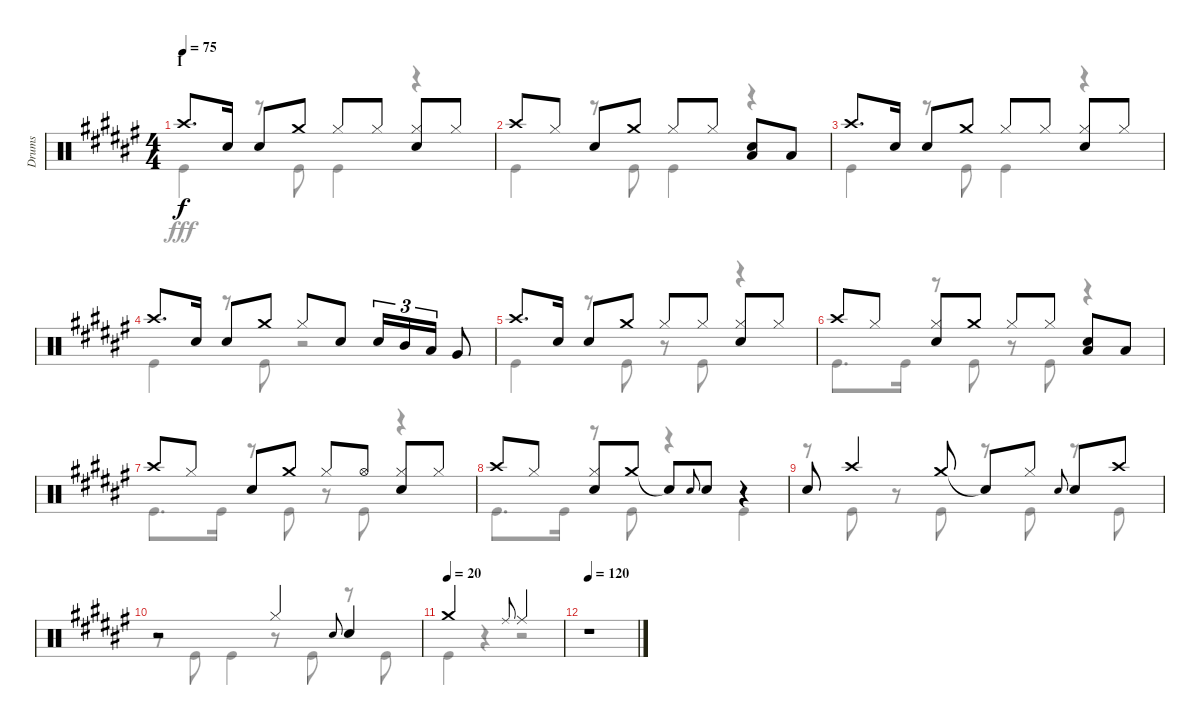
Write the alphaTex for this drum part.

\track ("Drums" "Drums") {instrument percussion}
\staff {score}
\articulation defaults
\voice
\ts (4 4)
\section ("" "I")
\tempo 75
\clef neutral
\ks f# "Crash high (hit)".8{d dy f} "Snare (hit) 2".16 "Snare (hit) 2".8 "Crash medium (hit)".8 "Hi-Hat (closed)".8 "Hi-Hat (closed)".8
("Hi-Hat (closed)" "Snare (hit) 2").8 "Hi-Hat (closed)".8 |
"Crash high (hit)".8 "Hi-Hat (closed)".8 "Snare (hit) 2".8 "Crash medium (hit)".8 "Hi-Hat (closed)".8 "Hi-Hat (closed)".8 ("Snare (hit) 2" "Low Tom (hit)").8 "Low Tom (hit)".8 |
"Crash high (hit)".8{d} "Snare (hit) 2".16 "Snare (hit) 2".8 "Crash medium (hit)".8 "Hi-Hat (closed)".8 "Hi-Hat (closed)".8 ("Hi-Hat (closed)" "Snare (hit) 2").8 "Hi-Hat (closed)".8 |
"Crash high (hit)".8{d} "Snare (hit) 2".16 "Snare (hit) 2".8 "Crash medium (hit)".8 "Hi-Hat (closed)".8 "Snare (hit) 2".8 "Snare (hit) 2".16{tu (3 2)} "Mid Tom (hit)".16{tu (3 2)} "Low Tom (hit)".16{tu (3 2)} "Very Low Tom (hit)".8 |
"Crash high (hit)".8{d} "Snare (hit) 2".16 "Snare (hit) 2".8 "Crash medium (hit)".8 "Hi-Hat (closed)".8 "Hi-Hat (closed)".8 ("Hi-Hat (closed)" "Snare (hit) 2").8 "Hi-Hat (closed)".8 |
"Crash high (hit)".8 "Hi-Hat (closed)".8 ("Hi-Hat (closed)" "Snare (hit) 2").8 "Crash medium (hit)".8 "Hi-Hat (closed)".8 "Hi-Hat (closed)".8 ("Snare (hit) 2" "Low Tom (hit)").8 "Low Tom (hit)".8 |
"Crash high (hit)".8 "Hi-Hat (closed)".8 "Snare (hit) 2".8 "Crash medium (hit)".8 "Hi-Hat (closed)".8 "Hi-Hat (open)".8 ("Hi-Hat (closed)" "Snare (hit) 2").8 "Hi-Hat (closed)".8 |
"Crash high (hit)".8 "Hi-Hat (closed)".8 ("Hi-Hat (closed)" "Snare (hit) 2").8 "Crash medium (hit)".8 "Snare (hit)"{t}.8 "Snare (hit) 2".8{gr onbeat} "Snare (hit) 2".8 r.4 |
"Snare (hit) 2".8 "Crash high (hit)".4 "Crash medium (hit)".8 "Snare (hit)"{t}.8 "Hi-Hat (closed)".8 "Snare (hit) 2".8{gr onbeat} "Snare (hit) 2".8 "Crash high (hit)".8 |
r.2 "Hi-Hat (closed)".4 "Snare (hit) 2".8{gr onbeat} "Snare (hit) 2".4 |
\tempo (20)
"Crash medium (hit)".2 "Ride (middle)".8{gr onbeat} "Ride (middle)".2 |
\tempo 120
r.1
\voice
\clef neutral
\ottava regular
\simile none
\ks f# "Kick (hit)".4{dy fff}
r.8 "Kick (hit)".8 "Kick (hit)".4 r.4 |
"Kick (hit)".4 r.8 "Kick (hit)".8 "Kick (hit)".4 r.4 |
"Kick (hit)".4 r.8 "Kick (hit)".8 "Kick (hit)".4 r.4 |
"Kick (hit)".4 r.8 "Kick (hit)".8 r.2 |
"Kick (hit)".4 r.8 "Kick (hit)".8 r.8 "Kick (hit)".8 r.4 |
"Kick (hit)".8{d} "Kick (hit)".16 r.8 "Kick (hit)".8 r.8 "Kick (hit)".8 r.4 |
"Kick (hit)".8{d} "Kick (hit)".16 r.8 "Kick (hit)".8 r.8 "Kick (hit)".8 r.4 |
"Kick (hit)".8{d} "Kick (hit)".16 r.8 "Kick (hit)".8 r.4 "Kick (hit)".4 |
r.8 "Kick (hit)".8 r.8 "Kick (hit)".8 r.8 "Kick (hit)".8 r.8 "Kick (hit)".8 |
r.8 "Kick (hit)".8 "Kick (hit)".4 r.8 "Kick (hit)".8 r.8 "Kick (hit)".8 |
"Kick (hit)".4 r.4 r.2 |
r.1
